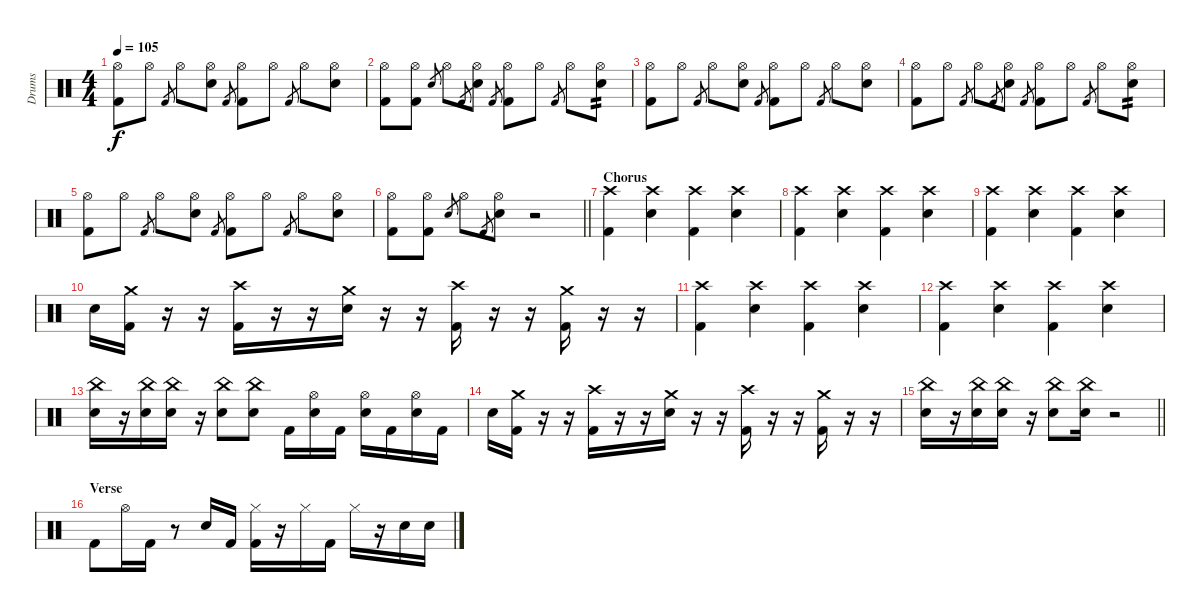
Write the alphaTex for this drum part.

\track ("Drums" "Drums") {instrument percussion}
\staff {score}
\articulation defaults
\ts (4 4)
\tempo 105
\clef neutral
\ks c
("Kick (hit) 2" "Hi-Hat (open)").8{dy f} "Hi-Hat (open)".8 "Kick (hit) 2".8{gr} "Hi-Hat (open)".8 ("Electric Snare (hit)" "Hi-Hat (open)").8 "Kick (hit) 2".8{gr} ("Kick (hit) 2" "Hi-Hat (open)").8 "Hi-Hat (open)".8 "Kick (hit) 2".8{gr} "Hi-Hat (open)".8 ("Electric Snare (hit)" "Hi-Hat (open)").8 |
("Kick (hit) 2" "Hi-Hat (open)").8 ("Kick (hit) 2" "Hi-Hat (open)").8 "Electric Snare (hit)".8{gr} "Hi-Hat (open)".8 "Kick (hit) 2".8{gr} ("Electric Snare (hit)" "Hi-Hat (open)").8 "Kick (hit) 2".8{gr} ("Kick (hit) 2" "Hi-Hat (open)").8 "Hi-Hat (open)".8 "Kick (hit) 2".8{gr} "Hi-Hat (open)".8 ("Electric Snare (hit)" "Hi-Hat (open)").8{tp 2} |
("Kick (hit) 2" "Hi-Hat (open)").8 "Hi-Hat (open)".8 "Kick (hit) 2".8{gr} "Hi-Hat (open)".8 ("Electric Snare (hit)" "Hi-Hat (open)").8 "Kick (hit) 2".8{gr} ("Kick (hit) 2" "Hi-Hat (open)").8 "Hi-Hat (open)".8 "Kick (hit) 2".8{gr} "Hi-Hat (open)".8 ("Electric Snare (hit)" "Hi-Hat (open)").8 |
("Kick (hit) 2" "Hi-Hat (open)").8 "Hi-Hat (open)".8 "Kick (hit) 2".8{gr} "Hi-Hat (open)".8 "Kick (hit) 2".8{gr} ("Electric Snare (hit)" "Hi-Hat (open)").8 "Kick (hit) 2".8{gr} ("Kick (hit) 2" "Hi-Hat (open)").8 "Hi-Hat (open)".8 "Kick (hit) 2".8{gr} "Hi-Hat (open)".8 ("Electric Snare (hit)" "Hi-Hat (open)").8{tp 2} |
("Kick (hit) 2" "Hi-Hat (open)").8 "Hi-Hat (open)".8 "Kick (hit) 2".8{gr} "Hi-Hat (open)".8 ("Electric Snare (hit)" "Hi-Hat (open)").8 "Kick (hit) 2".8{gr} ("Kick (hit) 2" "Hi-Hat (open)").8 "Hi-Hat (open)".8 "Kick (hit) 2".8{gr} "Hi-Hat (open)".8 ("Electric Snare (hit)" "Hi-Hat (open)").8 |
\barLineRight lightlight
("Kick (hit) 2" "Hi-Hat (open)").8 ("Kick (hit) 2" "Hi-Hat (open)").8 "Electric Snare (hit)".8{gr} "Hi-Hat (open)".8 "Kick (hit) 2".8{gr} ("Electric Snare (hit)" "Hi-Hat (open)").8 r.2 |
\section ("" "Chorus")
("Crash high (hit)" "Kick (hit) 2").4 ("Crash high (hit)" "Electric Snare (hit)").4 ("Crash high (hit)" "Kick (hit) 2").4 ("Crash high (hit)" "Electric Snare (hit)").4 |
("Crash high (hit)" "Kick (hit) 2").4 ("Crash high (hit)" "Electric Snare (hit)").4 ("Crash high (hit)" "Kick (hit) 2").4 ("Crash high (hit)" "Electric Snare (hit)").4 |
("Crash high (hit)" "Kick (hit) 2").4 ("Crash high (hit)" "Electric Snare (hit)").4 ("Crash high (hit)" "Kick (hit) 2").4 ("Crash high (hit)" "Electric Snare (hit)").4 |
"Electric Snare (hit)".16 ("Crash medium (hit)" "Kick (hit) 2").16 r.16 r.16 ("Crash high (hit)" "Kick (hit) 2").16 r.16 r.16 ("Crash medium (hit)" "Electric Snare (hit)").16 r.16 r.16 ("Crash high (hit)" "Kick (hit) 2").16 r.16 r.16 ("Crash medium (hit)" "Kick (hit) 2").16 r.16 r.16 |
("Crash high (hit)" "Kick (hit) 2").4 ("Crash high (hit)" "Electric Snare (hit)").4 ("Crash high (hit)" "Kick (hit) 2").4 ("Crash high (hit)" "Electric Snare (hit)").4 |
("Crash high (hit)" "Kick (hit) 2").4 ("Crash high (hit)" "Electric Snare (hit)").4 ("Crash high (hit)" "Kick (hit) 2").4 ("Crash high (hit)" "Electric Snare (hit)").4 |
("China (hit)" "Electric Snare (hit)").16 r.16 ("China (hit)" "Electric Snare (hit)").16 ("China (hit)" "Electric Snare (hit)").16 r.16 ("China (hit)" "Electric Snare (hit)").8 ("China (hit)" "Electric Snare (hit)").8 "Kick (hit) 2".16 ("Hi-Hat (open)" "Electric Snare (hit)").16 "Kick (hit) 2".16 ("Hi-Hat (open)" "Electric Snare (hit)").16 "Kick (hit) 2".16 ("Hi-Hat (open)" "Electric Snare (hit)").16 "Kick (hit) 2".16 |
"Electric Snare (hit)".16 ("Crash medium (hit)" "Kick (hit) 2").16 r.16 r.16 ("Crash high (hit)" "Kick (hit) 2").16 r.16 r.16 ("Crash medium (hit)" "Electric Snare (hit)").16 r.16 r.16 ("Crash high (hit)" "Kick (hit) 2").16 r.16 r.16 ("Crash medium (hit)" "Kick (hit) 2").16 r.16 r.16 |
\barLineRight lightlight
("China (hit)" "Electric Snare (hit)").16 r.16 ("China (hit)" "Electric Snare (hit)").16 ("China (hit)" "Electric Snare (hit)").16 r.16 ("China (hit)" "Electric Snare (hit)").8 ("China (hit)" "Electric Snare (hit)").16 r.2 |
\section ("" "Verse")
"Kick (hit) 2".8 "Hi-Hat (open)".16 "Kick (hit) 2".16 r.8 "Electric Snare (hit)".16 "Kick (hit) 2".16 ("Hi-Hat (closed)" "Kick (hit) 2").16 r.16 "Hi-Hat (closed)".16 "Kick (hit) 2".16 "Hi-Hat (closed)".16 r.16 "Electric Snare (hit)".16 "Electric Snare (hit)".16
